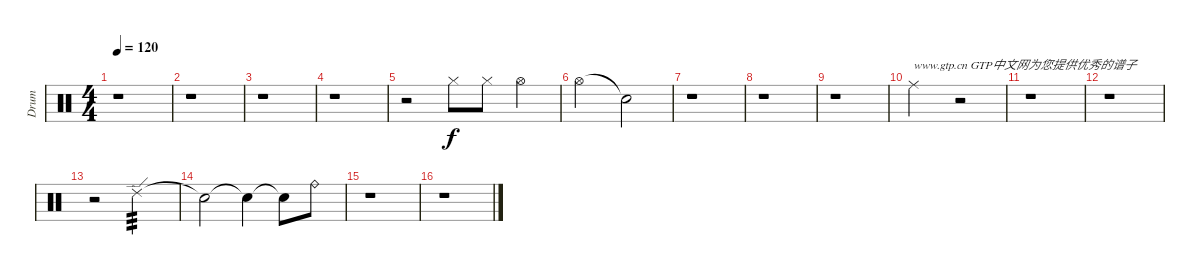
\track ("Drum" "Drum") {instrument percussion}
\staff {score}
\articulation defaults
\ts (4 4)
\tempo 120
\clef neutral
\ks c
r.1{dy f} |
r.1 |
r.1 |
r.1 |
r.2 "Hi-Hat (closed)".8 "Hi-Hat (closed)".8 "Hi-Hat (open)".4 |
"Hi-Hat (open)".2 "Snare (hit)"{t}.2 |
r.1 |
r.1 |
r.1 |
"Ride (middle)".2{txt "www.gtp.cn GTP中文网为您提供优秀的谱子"} r.2 |
r.1 |
r.1 |
r.2 "Ride (edge) 2".2{tp 3 volume 6} |
"Snare (hit)"{t}.2 "Snare (hit)"{t}.4 "Snare (hit)"{t}.8 "Ride (bell)".8 |
r.1 |
r.1
